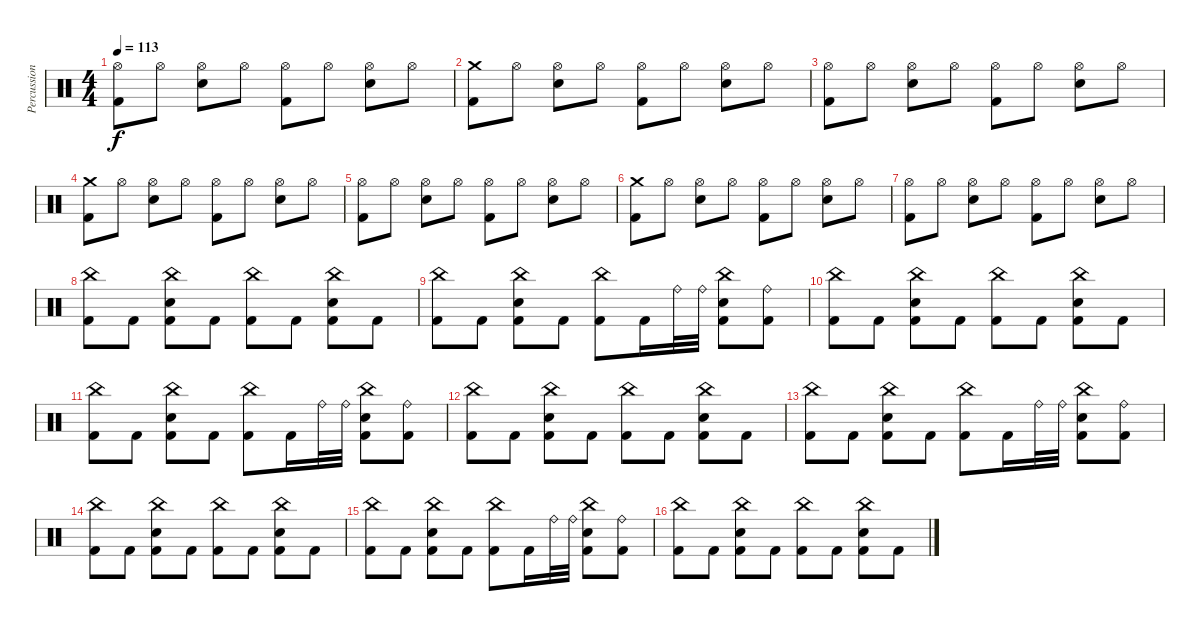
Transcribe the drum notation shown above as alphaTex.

\track ("Percussion" "Percussion") {instrument percussion}
\staff {score}
\articulation defaults
\ts (4 4)
\tempo 113
\clef neutral
\ks c
("Hi-Hat (open)" "Kick (hit) 2").8{dy f} "Hi-Hat (open)".8 ("Hi-Hat (open)" "Electric Snare (hit)").8 "Hi-Hat (open)".8 ("Hi-Hat (open)" "Kick (hit) 2").8 "Hi-Hat (open)".8 ("Hi-Hat (open)" "Electric Snare (hit)").8 "Hi-Hat (open)".8 |
("Crash medium (hit)" "Kick (hit) 2").8 "Hi-Hat (open)".8 ("Hi-Hat (open)" "Electric Snare (hit)").8 "Hi-Hat (open)".8 ("Hi-Hat (open)" "Kick (hit) 2").8 "Hi-Hat (open)".8 ("Hi-Hat (open)" "Electric Snare (hit)").8 "Hi-Hat (open)".8 |
("Hi-Hat (open)" "Kick (hit) 2").8 "Hi-Hat (open)".8 ("Hi-Hat (open)" "Electric Snare (hit)").8 "Hi-Hat (open)".8 ("Hi-Hat (open)" "Kick (hit) 2").8 "Hi-Hat (open)".8 ("Hi-Hat (open)" "Electric Snare (hit)").8 "Hi-Hat (open)".8 |
("Crash medium (hit)" "Kick (hit) 2").8 "Hi-Hat (open)".8 ("Hi-Hat (open)" "Electric Snare (hit)").8 "Hi-Hat (open)".8 ("Hi-Hat (open)" "Kick (hit) 2").8 "Hi-Hat (open)".8 ("Hi-Hat (open)" "Electric Snare (hit)").8 "Hi-Hat (open)".8 |
("Hi-Hat (open)" "Kick (hit) 2").8 "Hi-Hat (open)".8 ("Hi-Hat (open)" "Electric Snare (hit)").8 "Hi-Hat (open)".8 ("Hi-Hat (open)" "Kick (hit) 2").8 "Hi-Hat (open)".8 ("Hi-Hat (open)" "Electric Snare (hit)").8 "Hi-Hat (open)".8 |
("Crash medium (hit)" "Kick (hit) 2").8 "Hi-Hat (open)".8 ("Hi-Hat (open)" "Electric Snare (hit)").8 "Hi-Hat (open)".8 ("Hi-Hat (open)" "Kick (hit) 2").8 "Hi-Hat (open)".8 ("Hi-Hat (open)" "Electric Snare (hit)").8 "Hi-Hat (open)".8 |
("Hi-Hat (open)" "Kick (hit) 2").8 "Hi-Hat (open)".8 ("Hi-Hat (open)" "Electric Snare (hit)").8 "Hi-Hat (open)".8 ("Hi-Hat (open)" "Kick (hit) 2").8 "Hi-Hat (open)".8 ("Hi-Hat (open)" "Electric Snare (hit)").8 "Hi-Hat (open)".8 |
("China (hit)" "Kick (hit) 2").8 "Kick (hit) 2".8 ("China (hit)" "Electric Snare (hit)" "Kick (hit) 2").8 "Kick (hit) 2".8 ("China (hit)" "Kick (hit) 2").8 "Kick (hit) 2".8 ("China (hit)" "Electric Snare (hit)" "Kick (hit) 2").8 "Kick (hit) 2".8 |
("China (hit)" "Kick (hit) 2").8 "Kick (hit) 2".8 ("China (hit)" "Electric Snare (hit)" "Kick (hit) 2").8 "Kick (hit) 2".8 ("China (hit)" "Kick (hit) 2").8 "Kick (hit) 2".16 "Ride (bell)".32 "Ride (bell)".32 ("China (hit)" "Electric Snare (hit)" "Kick (hit) 2").8 ("Ride (bell)" "Kick (hit) 2").8 |
("China (hit)" "Kick (hit) 2").8 "Kick (hit) 2".8 ("China (hit)" "Electric Snare (hit)" "Kick (hit) 2").8 "Kick (hit) 2".8 ("China (hit)" "Kick (hit) 2").8 "Kick (hit) 2".8 ("China (hit)" "Electric Snare (hit)" "Kick (hit) 2").8 "Kick (hit) 2".8 |
("China (hit)" "Kick (hit) 2").8 "Kick (hit) 2".8 ("China (hit)" "Electric Snare (hit)" "Kick (hit) 2").8 "Kick (hit) 2".8 ("China (hit)" "Kick (hit) 2").8 "Kick (hit) 2".16 "Ride (bell)".32 "Ride (bell)".32 ("China (hit)" "Electric Snare (hit)" "Kick (hit) 2").8 ("Ride (bell)" "Kick (hit) 2").8 |
("China (hit)" "Kick (hit) 2").8 "Kick (hit) 2".8 ("China (hit)" "Electric Snare (hit)" "Kick (hit) 2").8 "Kick (hit) 2".8 ("China (hit)" "Kick (hit) 2").8 "Kick (hit) 2".8 ("China (hit)" "Electric Snare (hit)" "Kick (hit) 2").8 "Kick (hit) 2".8 |
("China (hit)" "Kick (hit) 2").8 "Kick (hit) 2".8 ("China (hit)" "Electric Snare (hit)" "Kick (hit) 2").8 "Kick (hit) 2".8 ("China (hit)" "Kick (hit) 2").8 "Kick (hit) 2".16 "Ride (bell)".32 "Ride (bell)".32 ("China (hit)" "Electric Snare (hit)" "Kick (hit) 2").8 ("Ride (bell)" "Kick (hit) 2").8 |
("China (hit)" "Kick (hit) 2").8 "Kick (hit) 2".8 ("China (hit)" "Electric Snare (hit)" "Kick (hit) 2").8 "Kick (hit) 2".8 ("China (hit)" "Kick (hit) 2").8 "Kick (hit) 2".8 ("China (hit)" "Electric Snare (hit)" "Kick (hit) 2").8 "Kick (hit) 2".8 |
("China (hit)" "Kick (hit) 2").8 "Kick (hit) 2".8 ("China (hit)" "Electric Snare (hit)" "Kick (hit) 2").8 "Kick (hit) 2".8 ("China (hit)" "Kick (hit) 2").8 "Kick (hit) 2".16 "Ride (bell)".32 "Ride (bell)".32 ("China (hit)" "Electric Snare (hit)" "Kick (hit) 2").8 ("Ride (bell)" "Kick (hit) 2").8 |
("China (hit)" "Kick (hit) 2").8 "Kick (hit) 2".8 ("China (hit)" "Electric Snare (hit)" "Kick (hit) 2").8 "Kick (hit) 2".8 ("China (hit)" "Kick (hit) 2").8 "Kick (hit) 2".8 ("China (hit)" "Electric Snare (hit)" "Kick (hit) 2").8 "Kick (hit) 2".8
